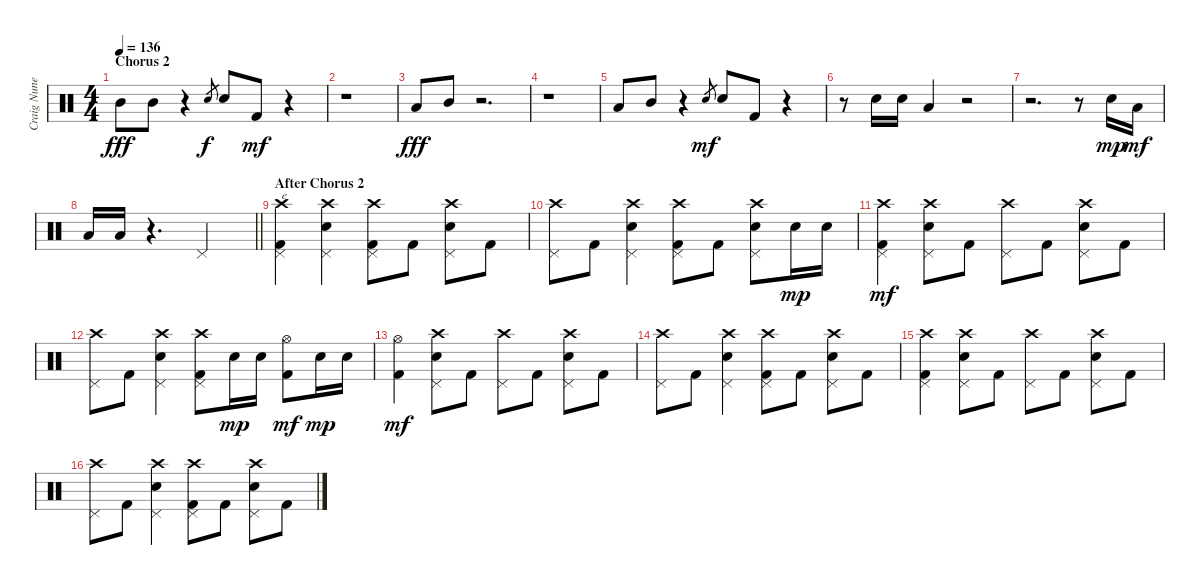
\track ("Craig Nunenmancher" "Craig Nune") {instrument percussion}
\staff {score}
\articulation defaults
\ts (4 4)
\section ("" "Chorus 2")
\tempo 136
\clef neutral
\ks c "Mid Tom (hit)".8{dy fff} "Mid Tom (hit)".8
r.4 "Snare (hit) 2".8{gr dy f} "Snare (hit) 2".8 "Kick (hit) 2".8{dy mf} r.4 |
r.1 |
"Low Floor Tom (hit)".8{dy fff} "Mid Tom (hit)".8 r.2{d} |
r.1 |
"Low Floor Tom (hit)".8 "Mid Tom (hit)".8 r.4 "Snare (hit) 2".8{gr dy mf} "Snare (hit) 2".8 "Kick (hit) 2".8 r.4 |
r.8 "Snare (hit) 2".16 "Snare (hit) 2".16 "Low Floor Tom (hit)".4 r.2 |
r.2{d} r.8 "Snare (hit) 2".16{dy mp} "Low Floor Tom (hit)".16{dy mf} |
\barLineRight lightlight "Low Floor Tom (hit)".16 "Low Floor Tom (hit)".16
r.4{d} "Pedal Hi-Hat (hit)".2 |
\section ("" "After Chorus 2")
("Crash high (hit)" "Pedal Hi-Hat (hit)" "Kick (hit) 2").4{txt "e"} ("Crash high (hit)" "Pedal Hi-Hat (hit)" "Snare (hit) 2").4 ("Crash high (hit)" "Pedal Hi-Hat (hit)" "Kick (hit) 2").8 "Kick (hit) 2".8 ("Crash high (hit)" "Pedal Hi-Hat (hit)" "Snare (hit) 2").8 "Kick (hit) 2".8 |
("Crash high (hit)" "Pedal Hi-Hat (hit)").8 "Kick (hit) 2".8 ("Crash high (hit)" "Pedal Hi-Hat (hit)" "Snare (hit) 2").4 ("Crash high (hit)" "Pedal Hi-Hat (hit)" "Kick (hit) 2").8 "Kick (hit) 2".8 ("Crash high (hit)" "Pedal Hi-Hat (hit)" "Snare (hit) 2").8 "Snare (hit) 2".16{dy mp} "Snare (hit) 2".16 |
("Crash high (hit)" "Pedal Hi-Hat (hit)" "Kick (hit) 2").4{dy mf} ("Crash high (hit)" "Pedal Hi-Hat (hit)" "Snare (hit) 2").8 "Kick (hit) 2".8 ("Crash high (hit)" "Pedal Hi-Hat (hit)").8 "Kick (hit) 2".8 ("Crash high (hit)" "Pedal Hi-Hat (hit)" "Snare (hit) 2").8 "Kick (hit) 2".8 |
("Crash high (hit)" "Pedal Hi-Hat (hit)").8 "Kick (hit) 2".8 ("Crash high (hit)" "Pedal Hi-Hat (hit)" "Snare (hit) 2").4 ("Crash high (hit)" "Pedal Hi-Hat (hit)" "Kick (hit) 2").8 "Snare (hit) 2".16{dy mp} "Snare (hit) 2".16 ("Hi-Hat (open)" "Kick (hit) 2").8{dy mf} "Snare (hit) 2".16{dy mp} "Snare (hit) 2".16 |
("Hi-Hat (open)" "Kick (hit) 2").4{dy mf} ("Crash high (hit)" "Pedal Hi-Hat (hit)" "Snare (hit) 2").8 "Kick (hit) 2".8 ("Crash high (hit)" "Pedal Hi-Hat (hit)").8 "Kick (hit) 2".8 ("Crash high (hit)" "Pedal Hi-Hat (hit)" "Snare (hit) 2").8 "Kick (hit) 2".8 |
("Crash high (hit)" "Pedal Hi-Hat (hit)").8 "Kick (hit) 2".8 ("Crash high (hit)" "Pedal Hi-Hat (hit)" "Snare (hit) 2").4 ("Crash high (hit)" "Pedal Hi-Hat (hit)" "Kick (hit) 2").8 "Kick (hit) 2".8 ("Crash high (hit)" "Pedal Hi-Hat (hit)" "Snare (hit) 2").8 "Kick (hit) 2".8 |
("Crash high (hit)" "Pedal Hi-Hat (hit)" "Kick (hit) 2").4 ("Crash high (hit)" "Pedal Hi-Hat (hit)" "Snare (hit) 2").8 "Kick (hit) 2".8 ("Crash high (hit)" "Pedal Hi-Hat (hit)").8 "Kick (hit) 2".8 ("Crash high (hit)" "Pedal Hi-Hat (hit)" "Snare (hit) 2").8 "Kick (hit) 2".8 |
("Crash high (hit)" "Pedal Hi-Hat (hit)").8 "Kick (hit) 2".8 ("Crash high (hit)" "Pedal Hi-Hat (hit)" "Snare (hit) 2").4 ("Crash high (hit)" "Pedal Hi-Hat (hit)" "Kick (hit) 2").8 "Kick (hit) 2".8 ("Crash high (hit)" "Pedal Hi-Hat (hit)" "Snare (hit) 2").8 "Kick (hit) 2".8
